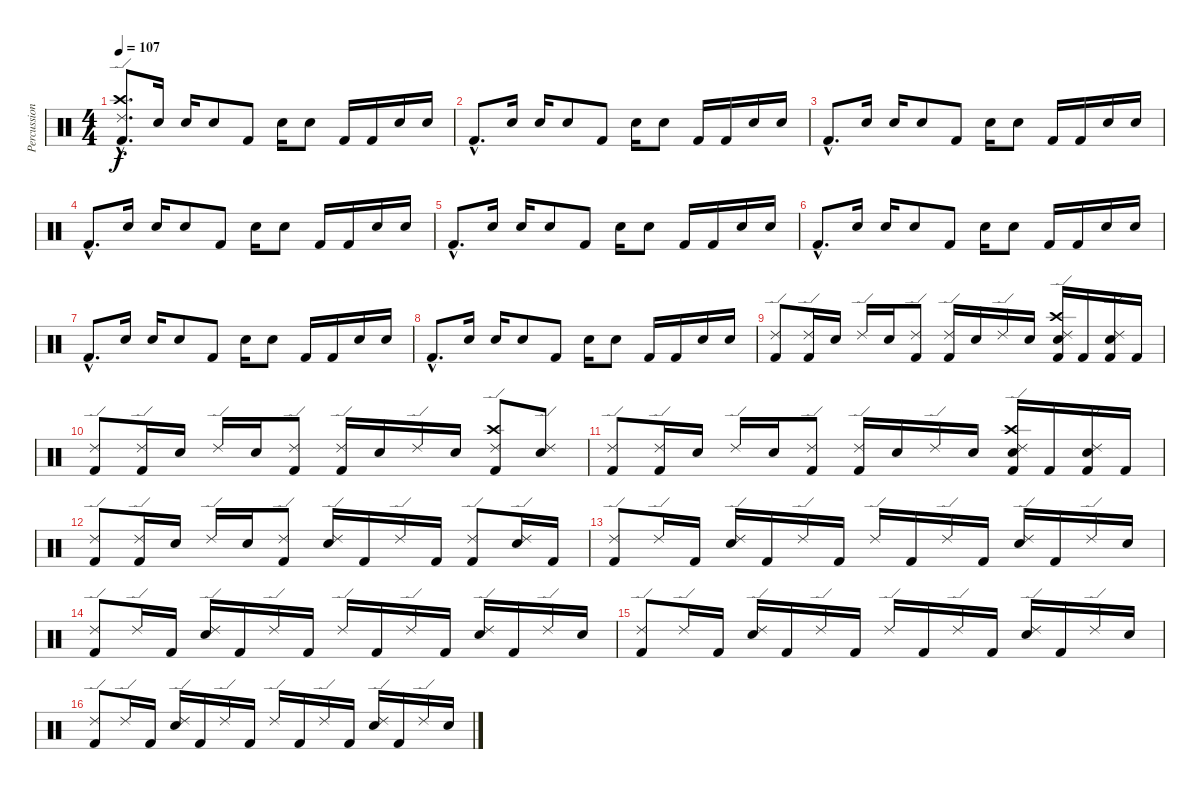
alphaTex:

\track ("Percussion" "Percussion") {instrument percussion}
\staff {score}
\articulation defaults
\ts (4 4)
\tempo 107
\clef neutral
\ks c
("Ride (edge) 2"{hac} "Crash high (hit)"{hac} "Kick (hit) 2"{hac}).8{d dy f} "Electric Snare (hit)".16 "Snare (hit) 2".16 "Electric Snare (hit)".8 "Kick (hit) 2".8 "Electric Snare (hit)".16 "Snare (hit) 2".8 "Kick (hit) 2".16 "Kick (hit) 2".16 "Electric Snare (hit)".16 "Snare (hit) 2".16 |
"Kick (hit) 2"{hac}.8{d} "Electric Snare (hit)".16 "Snare (hit) 2".16 "Electric Snare (hit)".8 "Kick (hit) 2".8 "Electric Snare (hit)".16 "Snare (hit) 2".8 "Kick (hit) 2".16 "Kick (hit) 2".16 "Electric Snare (hit)".16 "Snare (hit) 2".16 |
"Kick (hit) 2"{hac}.8{d} "Electric Snare (hit)".16 "Snare (hit) 2".16 "Electric Snare (hit)".8 "Kick (hit) 2".8 "Electric Snare (hit)".16 "Snare (hit) 2".8 "Kick (hit) 2".16 "Kick (hit) 2".16 "Electric Snare (hit)".16 "Snare (hit) 2".16 |
"Kick (hit) 2"{hac}.8{d} "Electric Snare (hit)".16 "Snare (hit) 2".16 "Electric Snare (hit)".8 "Kick (hit) 2".8 "Electric Snare (hit)".16 "Snare (hit) 2".8 "Kick (hit) 2".16 "Kick (hit) 2".16 "Electric Snare (hit)".16 "Snare (hit) 2".16 |
"Kick (hit) 2"{hac}.8{d} "Electric Snare (hit)".16 "Snare (hit) 2".16 "Electric Snare (hit)".8 "Kick (hit) 2".8 "Electric Snare (hit)".16 "Snare (hit) 2".8 "Kick (hit) 2".16 "Kick (hit) 2".16 "Electric Snare (hit)".16 "Snare (hit) 2".16 |
"Kick (hit) 2"{hac}.8{d} "Electric Snare (hit)".16 "Snare (hit) 2".16 "Electric Snare (hit)".8 "Kick (hit) 2".8 "Electric Snare (hit)".16 "Snare (hit) 2".8 "Kick (hit) 2".16 "Kick (hit) 2".16 "Electric Snare (hit)".16 "Snare (hit) 2".16 |
"Kick (hit) 2"{hac}.8{d} "Electric Snare (hit)".16 "Snare (hit) 2".16 "Electric Snare (hit)".8 "Kick (hit) 2".8 "Electric Snare (hit)".16 "Snare (hit) 2".8 "Kick (hit) 2".16 "Kick (hit) 2".16 "Electric Snare (hit)".16 "Snare (hit) 2".16 |
"Kick (hit) 2"{hac}.8{d} "Electric Snare (hit)".16 "Snare (hit) 2".16 "Electric Snare (hit)".8 "Kick (hit) 2".8 "Electric Snare (hit)".16 "Snare (hit) 2".8 "Kick (hit) 2".16 "Kick (hit) 2".16 "Electric Snare (hit)".16 "Snare (hit) 2".16 |
("Ride (edge) 2" "Kick (hit) 2").8 ("Ride (edge) 2" "Kick (hit) 2").16 "Electric Snare (hit)".16 "Ride (edge) 2".16 "Electric Snare (hit)".16 ("Ride (edge) 2" "Kick (hit) 2").8 ("Ride (edge) 2" "Kick (hit) 2").16 "Electric Snare (hit)".16 "Ride (edge) 2".16 "Electric Snare (hit)".16 ("Ride (edge) 2" "Crash high (hit)" "Electric Snare (hit)" "Kick (hit) 2").16 "Kick (hit) 2".16 ("Ride (edge) 2" "Snare (hit) 2" "Kick (hit) 2").16 "Kick (hit) 2".16 |
("Ride (edge) 2" "Kick (hit) 2").8 ("Ride (edge) 2" "Kick (hit) 2").16 "Electric Snare (hit)".16 "Ride (edge) 2".16 "Electric Snare (hit)".16 ("Ride (edge) 2" "Kick (hit) 2").8 ("Ride (edge) 2" "Kick (hit) 2").16 "Electric Snare (hit)".16 "Ride (edge) 2".16 "Electric Snare (hit)".16 ("Ride (edge) 2" "Crash high (hit)" "Kick (hit) 2").8 ("Ride (edge) 2" "Electric Snare (hit)").8 |
("Ride (edge) 2" "Kick (hit) 2").8 ("Ride (edge) 2" "Kick (hit) 2").16 "Electric Snare (hit)".16 "Ride (edge) 2".16 "Electric Snare (hit)".16 ("Ride (edge) 2" "Kick (hit) 2").8 ("Ride (edge) 2" "Kick (hit) 2").16 "Electric Snare (hit)".16 "Ride (edge) 2".16 "Electric Snare (hit)".16 ("Ride (edge) 2" "Crash high (hit)" "Electric Snare (hit)" "Kick (hit) 2").16 "Kick (hit) 2".16 ("Ride (edge) 2" "Snare (hit) 2" "Kick (hit) 2").16 "Kick (hit) 2".16 |
("Ride (edge) 2" "Kick (hit) 2").8 ("Ride (edge) 2" "Kick (hit) 2").16 "Electric Snare (hit)".16 "Ride (edge) 2".16 "Electric Snare (hit)".16 ("Ride (edge) 2" "Kick (hit) 2").8 ("Ride (edge) 2" "Electric Snare (hit)").16 "Kick (hit) 2".16 "Ride (edge) 2".16 "Kick (hit) 2".16 ("Ride (edge) 2" "Kick (hit) 2").8 ("Ride (edge) 2" "Electric Snare (hit)").16 "Kick (hit) 2".16 |
("Ride (edge) 2" "Kick (hit) 2").8 "Ride (edge) 2".16 "Kick (hit) 2".16 ("Ride (edge) 2" "Electric Snare (hit)").16 "Kick (hit) 2".16 "Ride (edge) 2".16 "Kick (hit) 2".16 "Ride (edge) 2".16 "Kick (hit) 2".16 "Ride (edge) 2".16 "Kick (hit) 2".16 ("Ride (edge) 2" "Electric Snare (hit)").16 "Kick (hit) 2".16 "Ride (edge) 2".16 "Electric Snare (hit)".16 |
("Ride (edge) 2" "Kick (hit) 2").8 "Ride (edge) 2".16 "Kick (hit) 2".16 ("Ride (edge) 2" "Electric Snare (hit)").16 "Kick (hit) 2".16 "Ride (edge) 2".16 "Kick (hit) 2".16 "Ride (edge) 2".16 "Kick (hit) 2".16 "Ride (edge) 2".16 "Kick (hit) 2".16 ("Ride (edge) 2" "Electric Snare (hit)").16 "Kick (hit) 2".16 "Ride (edge) 2".16 "Electric Snare (hit)".16 |
("Ride (edge) 2" "Kick (hit) 2").8 "Ride (edge) 2".16 "Kick (hit) 2".16 ("Ride (edge) 2" "Electric Snare (hit)").16 "Kick (hit) 2".16 "Ride (edge) 2".16 "Kick (hit) 2".16 "Ride (edge) 2".16 "Kick (hit) 2".16 "Ride (edge) 2".16 "Kick (hit) 2".16 ("Ride (edge) 2" "Electric Snare (hit)").16 "Kick (hit) 2".16 "Ride (edge) 2".16 "Electric Snare (hit)".16 |
("Ride (edge) 2" "Kick (hit) 2").8 "Ride (edge) 2".16 "Kick (hit) 2".16 ("Ride (edge) 2" "Electric Snare (hit)").16 "Kick (hit) 2".16 "Ride (edge) 2".16 "Kick (hit) 2".16 "Ride (edge) 2".16 "Kick (hit) 2".16 "Ride (edge) 2".16 "Kick (hit) 2".16 ("Ride (edge) 2" "Electric Snare (hit)").16 "Kick (hit) 2".16 "Ride (edge) 2".16 "Electric Snare (hit)".16
